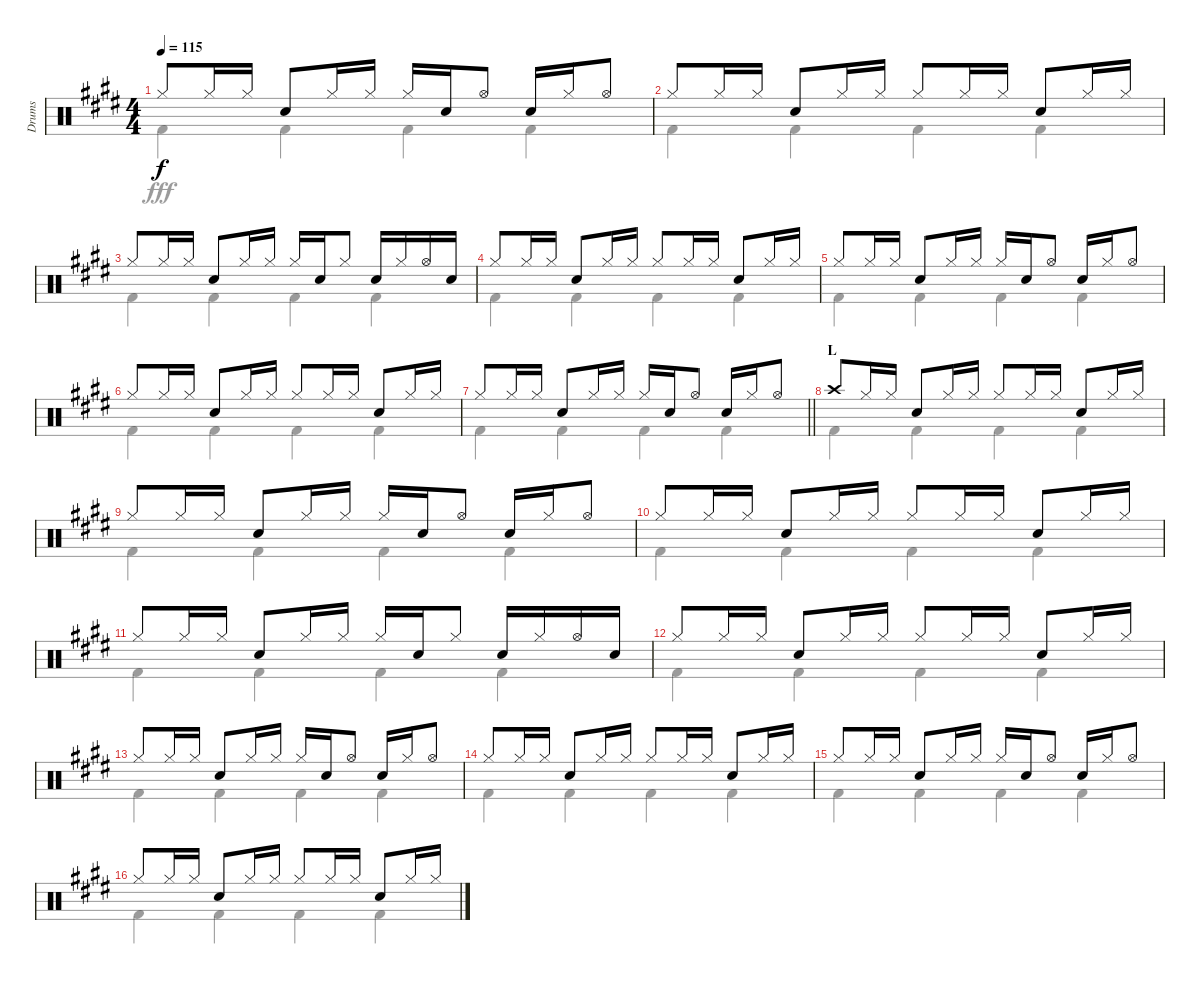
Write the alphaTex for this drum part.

\track ("Drums" "Drums") {instrument percussion}
\staff {score}
\articulation defaults
\voice
\ts (4 4)
\tempo 115
\clef neutral
\ks e "Hi-Hat (closed)".8{dy f} "Hi-Hat (closed)".16 "Hi-Hat (closed)".16 "Snare (hit) 2".8 "Hi-Hat (closed)".16 "Hi-Hat (closed)".16 "Hi-Hat (closed)".16 "Snare (hit) 2".16 "Hi-Hat (open)".8 "Snare (hit) 2".16 "Hi-Hat (closed)".16 "Hi-Hat (open)".8
|
"Hi-Hat (closed)".8 "Hi-Hat (closed)".16 "Hi-Hat (closed)".16 "Snare (hit) 2".8 "Hi-Hat (closed)".16 "Hi-Hat (closed)".16 "Hi-Hat (closed)".8 "Hi-Hat (closed)".16 "Hi-Hat (closed)".16 "Snare (hit) 2".8 "Hi-Hat (closed)".16 "Hi-Hat (closed)".16 |
"Hi-Hat (closed)".8 "Hi-Hat (closed)".16 "Hi-Hat (closed)".16 "Snare (hit) 2".8 "Hi-Hat (closed)".16 "Hi-Hat (closed)".16 "Hi-Hat (closed)".16 "Snare (hit) 2".16 "Hi-Hat (closed)".8 "Snare (hit) 2".16 "Hi-Hat (closed)".16 "Hi-Hat (open)".16 "Snare (hit) 2".16 |
"Hi-Hat (closed)".8 "Hi-Hat (closed)".16 "Hi-Hat (closed)".16 "Snare (hit) 2".8 "Hi-Hat (closed)".16 "Hi-Hat (closed)".16 "Hi-Hat (closed)".8 "Hi-Hat (closed)".16 "Hi-Hat (closed)".16 "Snare (hit) 2".8 "Hi-Hat (closed)".16 "Hi-Hat (closed)".16 |
"Hi-Hat (closed)".8 "Hi-Hat (closed)".16 "Hi-Hat (closed)".16 "Snare (hit) 2".8 "Hi-Hat (closed)".16 "Hi-Hat (closed)".16 "Hi-Hat (closed)".16 "Snare (hit) 2".16 "Hi-Hat (open)".8 "Snare (hit) 2".16 "Hi-Hat (closed)".16 "Hi-Hat (open)".8 |
"Hi-Hat (closed)".8 "Hi-Hat (closed)".16 "Hi-Hat (closed)".16 "Snare (hit) 2".8 "Hi-Hat (closed)".16 "Hi-Hat (closed)".16 "Hi-Hat (closed)".8 "Hi-Hat (closed)".16 "Hi-Hat (closed)".16 "Snare (hit) 2".8 "Hi-Hat (closed)".16 "Hi-Hat (closed)".16 |
\barLineRight lightlight "Hi-Hat (closed)".8 "Hi-Hat (closed)".16 "Hi-Hat (closed)".16 "Snare (hit) 2".8 "Hi-Hat (closed)".16 "Hi-Hat (closed)".16 "Hi-Hat (closed)".16 "Snare (hit) 2".16 "Hi-Hat (open)".8 "Snare (hit) 2".16 "Hi-Hat (closed)".16 "Hi-Hat (open)".8
|
\section ("" "L")
"Crash high (hit)".8 "Hi-Hat (closed)".16 "Hi-Hat (closed)".16 "Snare (hit) 2".8 "Hi-Hat (closed)".16 "Hi-Hat (closed)".16 "Hi-Hat (closed)".8 "Hi-Hat (closed)".16 "Hi-Hat (closed)".16 "Snare (hit) 2".8 "Hi-Hat (closed)".16 "Hi-Hat (closed)".16 |
"Hi-Hat (closed)".8 "Hi-Hat (closed)".16 "Hi-Hat (closed)".16 "Snare (hit) 2".8 "Hi-Hat (closed)".16 "Hi-Hat (closed)".16 "Hi-Hat (closed)".16 "Snare (hit) 2".16 "Hi-Hat (open)".8 "Snare (hit) 2".16 "Hi-Hat (closed)".16 "Hi-Hat (open)".8 |
"Hi-Hat (closed)".8 "Hi-Hat (closed)".16 "Hi-Hat (closed)".16 "Snare (hit) 2".8 "Hi-Hat (closed)".16 "Hi-Hat (closed)".16 "Hi-Hat (closed)".8 "Hi-Hat (closed)".16 "Hi-Hat (closed)".16 "Snare (hit) 2".8 "Hi-Hat (closed)".16 "Hi-Hat (closed)".16 |
"Hi-Hat (closed)".8 "Hi-Hat (closed)".16 "Hi-Hat (closed)".16 "Snare (hit) 2".8 "Hi-Hat (closed)".16 "Hi-Hat (closed)".16 "Hi-Hat (closed)".16 "Snare (hit) 2".16 "Hi-Hat (closed)".8 "Snare (hit) 2".16 "Hi-Hat (closed)".16 "Hi-Hat (open)".16 "Snare (hit) 2".16 |
"Hi-Hat (closed)".8 "Hi-Hat (closed)".16 "Hi-Hat (closed)".16 "Snare (hit) 2".8 "Hi-Hat (closed)".16 "Hi-Hat (closed)".16 "Hi-Hat (closed)".8 "Hi-Hat (closed)".16 "Hi-Hat (closed)".16 "Snare (hit) 2".8 "Hi-Hat (closed)".16 "Hi-Hat (closed)".16 |
"Hi-Hat (closed)".8 "Hi-Hat (closed)".16 "Hi-Hat (closed)".16 "Snare (hit) 2".8 "Hi-Hat (closed)".16 "Hi-Hat (closed)".16 "Hi-Hat (closed)".16 "Snare (hit) 2".16 "Hi-Hat (open)".8 "Snare (hit) 2".16 "Hi-Hat (closed)".16 "Hi-Hat (open)".8 |
"Hi-Hat (closed)".8 "Hi-Hat (closed)".16 "Hi-Hat (closed)".16 "Snare (hit) 2".8 "Hi-Hat (closed)".16 "Hi-Hat (closed)".16 "Hi-Hat (closed)".8 "Hi-Hat (closed)".16 "Hi-Hat (closed)".16 "Snare (hit) 2".8 "Hi-Hat (closed)".16 "Hi-Hat (closed)".16 |
"Hi-Hat (closed)".8 "Hi-Hat (closed)".16 "Hi-Hat (closed)".16 "Snare (hit) 2".8 "Hi-Hat (closed)".16 "Hi-Hat (closed)".16 "Hi-Hat (closed)".16 "Snare (hit) 2".16 "Hi-Hat (open)".8 "Snare (hit) 2".16 "Hi-Hat (closed)".16 "Hi-Hat (open)".8 |
"Hi-Hat (closed)".8 "Hi-Hat (closed)".16 "Hi-Hat (closed)".16 "Snare (hit) 2".8 "Hi-Hat (closed)".16 "Hi-Hat (closed)".16 "Hi-Hat (closed)".8 "Hi-Hat (closed)".16 "Hi-Hat (closed)".16 "Snare (hit) 2".8 "Hi-Hat (closed)".16 "Hi-Hat (closed)".16
\voice
\clef neutral
\ottava regular
\simile none
\ks e "Kick (hit) 2".4{dy fff} "Kick (hit) 2".4 "Kick (hit) 2".4 "Kick (hit) 2".4
|
"Kick (hit) 2".4 "Kick (hit) 2".4 "Kick (hit) 2".4 "Kick (hit) 2".4 |
"Kick (hit) 2".4 "Kick (hit) 2".4 "Kick (hit) 2".4 "Kick (hit) 2".4 |
"Kick (hit) 2".4 "Kick (hit) 2".4 "Kick (hit) 2".4 "Kick (hit) 2".4 |
"Kick (hit) 2".4 "Kick (hit) 2".4 "Kick (hit) 2".4 "Kick (hit) 2".4 |
"Kick (hit) 2".4 "Kick (hit) 2".4 "Kick (hit) 2".4 "Kick (hit) 2".4 |
\barLineRight lightlight "Kick (hit) 2".4 "Kick (hit) 2".4 "Kick (hit) 2".4 "Kick (hit) 2".4
|
"Kick (hit) 2".4 "Kick (hit) 2".4 "Kick (hit) 2".4 "Kick (hit) 2".4 |
"Kick (hit) 2".4 "Kick (hit) 2".4 "Kick (hit) 2".4 "Kick (hit) 2".4 |
"Kick (hit) 2".4 "Kick (hit) 2".4 "Kick (hit) 2".4 "Kick (hit) 2".4 |
"Kick (hit) 2".4 "Kick (hit) 2".4 "Kick (hit) 2".4 "Kick (hit) 2".4 |
"Kick (hit) 2".4 "Kick (hit) 2".4 "Kick (hit) 2".4 "Kick (hit) 2".4 |
"Kick (hit) 2".4 "Kick (hit) 2".4 "Kick (hit) 2".4 "Kick (hit) 2".4 |
"Kick (hit) 2".4 "Kick (hit) 2".4 "Kick (hit) 2".4 "Kick (hit) 2".4 |
"Kick (hit) 2".4 "Kick (hit) 2".4 "Kick (hit) 2".4 "Kick (hit) 2".4 |
"Kick (hit) 2".4 "Kick (hit) 2".4 "Kick (hit) 2".4 "Kick (hit) 2".4
